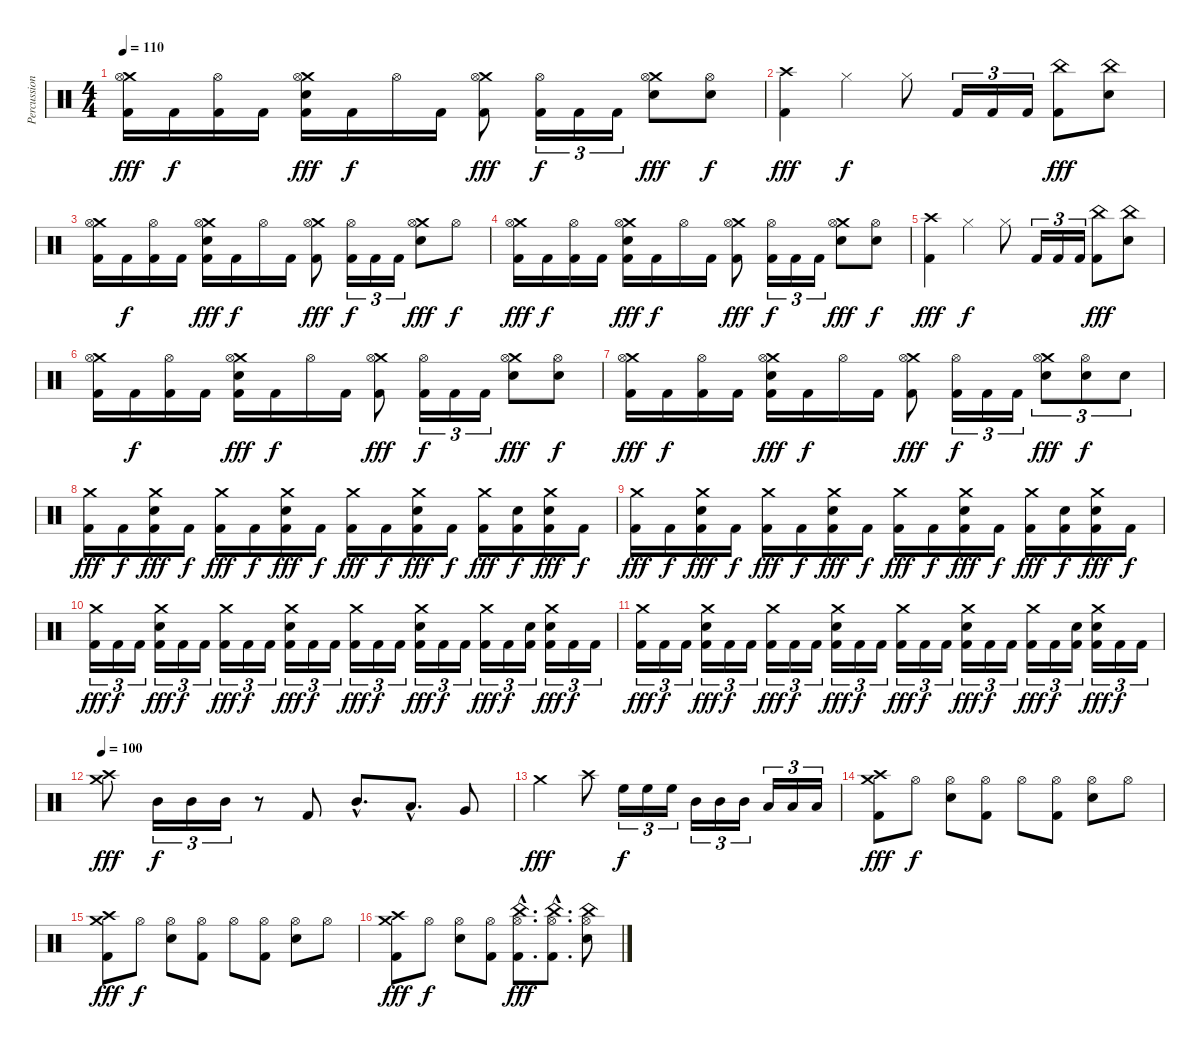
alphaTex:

\track ("Percussion" "Percussion") {instrument percussion}
\staff {score}
\articulation defaults
\ts (4 4)
\tempo 110
\clef neutral
\ks c
("Crash medium (hit)" "Hi-Hat (open)" "Kick (hit) 2").16{dy fff} "Kick (hit) 2".16{dy f} ("Hi-Hat (open)" "Kick (hit) 2").16 "Kick (hit) 2".16 ("Crash medium (hit)" "Hi-Hat (open)" "Electric Snare (hit)" "Kick (hit) 2").16{dy fff} "Kick (hit) 2".16{dy f} "Hi-Hat (open)".16 "Kick (hit) 2".16 ("Crash medium (hit)" "Hi-Hat (open)" "Kick (hit) 2").8{dy fff} ("Hi-Hat (open)" "Kick (hit) 2").16{tu (3 2) dy f} "Kick (hit) 2".16{tu (3 2)} "Kick (hit) 2".16{tu (3 2)} ("Crash medium (hit)" "Hi-Hat (open)" "Electric Snare (hit)").8{dy fff} ("Hi-Hat (open)" "Electric Snare (hit)").8{dy f} |
("Crash high (hit)" "Kick (hit) 2").4{dy fff} "Hi-Hat (closed)".4{dy f} "Hi-Hat (closed)".8 "Kick (hit) 2".16{tu (3 2)} "Kick (hit) 2".16{tu (3 2)} "Kick (hit) 2".16{tu (3 2)} ("China (hit)" "Kick (hit) 2").8{dy fff} ("China (hit)" "Electric Snare (hit)").8 |
("Crash medium (hit)" "Hi-Hat (open)" "Kick (hit) 2").16 "Kick (hit) 2".16{dy f} ("Hi-Hat (open)" "Kick (hit) 2").16 "Kick (hit) 2".16 ("Crash medium (hit)" "Hi-Hat (open)" "Electric Snare (hit)" "Kick (hit) 2").16{dy fff} "Kick (hit) 2".16{dy f} "Hi-Hat (open)".16 "Kick (hit) 2".16 ("Crash medium (hit)" "Hi-Hat (open)" "Kick (hit) 2").8{dy fff} ("Hi-Hat (open)" "Kick (hit) 2").16{tu (3 2) dy f} "Kick (hit) 2".16{tu (3 2)} "Kick (hit) 2".16{tu (3 2)} ("Crash medium (hit)" "Hi-Hat (open)" "Electric Snare (hit)").8{dy fff} "Hi-Hat (open)".8{dy f} |
("Crash medium (hit)" "Hi-Hat (open)" "Kick (hit) 2").16{dy fff} "Kick (hit) 2".16{dy f} ("Hi-Hat (open)" "Kick (hit) 2").16 "Kick (hit) 2".16 ("Crash medium (hit)" "Hi-Hat (open)" "Electric Snare (hit)" "Kick (hit) 2").16{dy fff} "Kick (hit) 2".16{dy f} "Hi-Hat (open)".16 "Kick (hit) 2".16 ("Crash medium (hit)" "Hi-Hat (open)" "Kick (hit) 2").8{dy fff} ("Hi-Hat (open)" "Kick (hit) 2").16{tu (3 2) dy f} "Kick (hit) 2".16{tu (3 2)} "Kick (hit) 2".16{tu (3 2)} ("Crash medium (hit)" "Hi-Hat (open)" "Electric Snare (hit)").8{dy fff} ("Hi-Hat (open)" "Electric Snare (hit)").8{dy f} |
("Crash high (hit)" "Kick (hit) 2").4{dy fff} "Hi-Hat (closed)".4{dy f} "Hi-Hat (closed)".8 "Kick (hit) 2".16{tu (3 2)} "Kick (hit) 2".16{tu (3 2)} "Kick (hit) 2".16{tu (3 2)} ("China (hit)" "Kick (hit) 2").8{dy fff} ("China (hit)" "Electric Snare (hit)").8 |
("Crash medium (hit)" "Hi-Hat (open)" "Kick (hit) 2").16 "Kick (hit) 2".16{dy f} ("Hi-Hat (open)" "Kick (hit) 2").16 "Kick (hit) 2".16 ("Crash medium (hit)" "Hi-Hat (open)" "Electric Snare (hit)" "Kick (hit) 2").16{dy fff} "Kick (hit) 2".16{dy f} "Hi-Hat (open)".16 "Kick (hit) 2".16 ("Crash medium (hit)" "Hi-Hat (open)" "Kick (hit) 2").8{dy fff} ("Hi-Hat (open)" "Kick (hit) 2").16{tu (3 2) dy f} "Kick (hit) 2".16{tu (3 2)} "Kick (hit) 2".16{tu (3 2)} ("Crash medium (hit)" "Hi-Hat (open)" "Electric Snare (hit)").8{dy fff} ("Hi-Hat (open)" "Electric Snare (hit)").8{dy f} |
("Crash medium (hit)" "Hi-Hat (open)" "Kick (hit) 2").16{dy fff} "Kick (hit) 2".16{dy f} ("Hi-Hat (open)" "Kick (hit) 2").16 "Kick (hit) 2".16 ("Crash medium (hit)" "Hi-Hat (open)" "Electric Snare (hit)" "Kick (hit) 2").16{dy fff} "Kick (hit) 2".16{dy f} "Hi-Hat (open)".16 "Kick (hit) 2".16 ("Crash medium (hit)" "Hi-Hat (open)" "Kick (hit) 2").8{dy fff} ("Hi-Hat (open)" "Kick (hit) 2").16{tu (3 2) dy f} "Kick (hit) 2".16{tu (3 2)} "Kick (hit) 2".16{tu (3 2)} ("Crash medium (hit)" "Hi-Hat (open)" "Electric Snare (hit)").8{tu (3 2) dy fff} ("Hi-Hat (open)" "Electric Snare (hit)").8{tu (3 2) dy f} "Electric Snare (hit)".8{tu (3 2)} |
("Crash medium (hit)" "Kick (hit) 2").16{dy fff} "Kick (hit) 2".16{dy f} ("Crash medium (hit)" "Electric Snare (hit)" "Kick (hit) 2").16{dy fff} "Kick (hit) 2".16{dy f} ("Crash medium (hit)" "Kick (hit) 2").16{dy fff} "Kick (hit) 2".16{dy f} ("Crash medium (hit)" "Electric Snare (hit)" "Kick (hit) 2").16{dy fff} "Kick (hit) 2".16{dy f} ("Crash medium (hit)" "Kick (hit) 2").16{dy fff} "Kick (hit) 2".16{dy f} ("Crash medium (hit)" "Electric Snare (hit)" "Kick (hit) 2").16{dy fff} "Kick (hit) 2".16{dy f} ("Crash medium (hit)" "Kick (hit) 2").16{dy fff} ("Electric Snare (hit)" "Kick (hit) 2").16{dy f} ("Crash medium (hit)" "Electric Snare (hit)" "Kick (hit) 2").16{dy fff} "Kick (hit) 2".16{dy f} |
("Crash medium (hit)" "Kick (hit) 2").16{dy fff} "Kick (hit) 2".16{dy f} ("Crash medium (hit)" "Electric Snare (hit)" "Kick (hit) 2").16{dy fff} "Kick (hit) 2".16{dy f} ("Crash medium (hit)" "Kick (hit) 2").16{dy fff} "Kick (hit) 2".16{dy f} ("Crash medium (hit)" "Electric Snare (hit)" "Kick (hit) 2").16{dy fff} "Kick (hit) 2".16{dy f} ("Crash medium (hit)" "Kick (hit) 2").16{dy fff} "Kick (hit) 2".16{dy f} ("Crash medium (hit)" "Electric Snare (hit)" "Kick (hit) 2").16{dy fff} "Kick (hit) 2".16{dy f} ("Crash medium (hit)" "Kick (hit) 2").16{dy fff} ("Electric Snare (hit)" "Kick (hit) 2").16{dy f} ("Crash medium (hit)" "Electric Snare (hit)" "Kick (hit) 2").16{dy fff} "Kick (hit) 2".16{dy f} |
("Crash medium (hit)" "Kick (hit) 2").16{tu (3 2) dy fff} "Kick (hit) 2".16{tu (3 2) dy f} "Kick (hit) 2".16{tu (3 2)} ("Crash medium (hit)" "Electric Snare (hit)" "Kick (hit) 2").16{tu (3 2) dy fff} "Kick (hit) 2".16{tu (3 2) dy f} "Kick (hit) 2".16{tu (3 2)} ("Crash medium (hit)" "Kick (hit) 2").16{tu (3 2) dy fff} "Kick (hit) 2".16{tu (3 2) dy f} "Kick (hit) 2".16{tu (3 2)} ("Crash medium (hit)" "Electric Snare (hit)" "Kick (hit) 2").16{tu (3 2) dy fff} "Kick (hit) 2".16{tu (3 2) dy f} "Kick (hit) 2".16{tu (3 2)} ("Crash medium (hit)" "Kick (hit) 2").16{tu (3 2) dy fff} "Kick (hit) 2".16{tu (3 2) dy f} "Kick (hit) 2".16{tu (3 2)} ("Crash medium (hit)" "Electric Snare (hit)" "Kick (hit) 2").16{tu (3 2) dy fff} "Kick (hit) 2".16{tu (3 2) dy f} "Kick (hit) 2".16{tu (3 2)} ("Crash medium (hit)" "Kick (hit) 2").16{tu (3 2) dy fff} "Kick (hit) 2".16{tu (3 2) dy f} ("Electric Snare (hit)" "Kick (hit) 2").16{tu (3 2)} ("Crash medium (hit)" "Electric Snare (hit)" "Kick (hit) 2").16{tu (3 2) dy fff} "Kick (hit) 2".16{tu (3 2) dy f} "Kick (hit) 2".16{tu (3 2)} |
("Crash medium (hit)" "Kick (hit) 2").16{tu (3 2) dy fff} "Kick (hit) 2".16{tu (3 2) dy f} "Kick (hit) 2".16{tu (3 2)} ("Crash medium (hit)" "Electric Snare (hit)" "Kick (hit) 2").16{tu (3 2) dy fff} "Kick (hit) 2".16{tu (3 2) dy f} "Kick (hit) 2".16{tu (3 2)} ("Crash medium (hit)" "Kick (hit) 2").16{tu (3 2) dy fff} "Kick (hit) 2".16{tu (3 2) dy f} "Kick (hit) 2".16{tu (3 2)} ("Crash medium (hit)" "Electric Snare (hit)" "Kick (hit) 2").16{tu (3 2) dy fff} "Kick (hit) 2".16{tu (3 2) dy f} "Kick (hit) 2".16{tu (3 2)} ("Crash medium (hit)" "Kick (hit) 2").16{tu (3 2) dy fff} "Kick (hit) 2".16{tu (3 2) dy f} "Kick (hit) 2".16{tu (3 2)} ("Crash medium (hit)" "Electric Snare (hit)" "Kick (hit) 2").16{tu (3 2) dy fff} "Kick (hit) 2".16{tu (3 2) dy f} "Kick (hit) 2".16{tu (3 2)} ("Crash medium (hit)" "Kick (hit) 2").16{tu (3 2) dy fff} "Kick (hit) 2".16{tu (3 2) dy f} ("Electric Snare (hit)" "Kick (hit) 2").16{tu (3 2)} ("Crash medium (hit)" "Electric Snare (hit)" "Kick (hit) 2").16{tu (3 2) dy fff} "Kick (hit) 2".16{tu (3 2) dy f} "Kick (hit) 2".16{tu (3 2)} |
\tempo 100
("Crash medium (hit)" "Crash high (hit)").8{dy fff} "Mid Tom (hit)".16{tu (3 2) dy f} "Mid Tom (hit)".16{tu (3 2)} "Mid Tom (hit)".16{tu (3 2)} r.8 "Kick (hit) 2".8 "Mid Tom (hit)"{hac}.8{d} "Low Tom (hit)"{hac}.8{d} "Very Low Tom (hit)".8 |
"Crash medium (hit)".2{dy fff} "Crash high (hit)".8 "High Floor Tom (hit)".16{tu (3 2) dy f} "High Floor Tom (hit)".16{tu (3 2)} "High Floor Tom (hit)".16{tu (3 2)} "Mid Tom (hit)".16{tu (3 2)} "Mid Tom (hit)".16{tu (3 2)} "Mid Tom (hit)".16{tu (3 2)} "Low Tom (hit)".16{tu (3 2)} "Low Tom (hit)".16{tu (3 2)} "Low Tom (hit)".16{tu (3 2)} |
("Crash medium (hit)" "Crash high (hit)" "Kick (hit) 2").8{dy fff} "Hi-Hat (open)".8{dy f} ("Hi-Hat (open)" "Electric Snare (hit)").8 ("Hi-Hat (open)" "Kick (hit) 2").8 "Hi-Hat (open)".8 ("Hi-Hat (open)" "Kick (hit) 2").8 ("Hi-Hat (open)" "Electric Snare (hit)").8 "Hi-Hat (open)".8 |
("Crash medium (hit)" "Crash high (hit)" "Kick (hit) 2").8{dy fff} "Hi-Hat (open)".8{dy f} ("Hi-Hat (open)" "Electric Snare (hit)").8 ("Hi-Hat (open)" "Kick (hit) 2").8 "Hi-Hat (open)".8 ("Hi-Hat (open)" "Kick (hit) 2").8 ("Hi-Hat (open)" "Electric Snare (hit)").8 "Hi-Hat (open)".8 |
("Crash medium (hit)" "Crash high (hit)" "Kick (hit) 2").8{dy fff} "Hi-Hat (open)".8{dy f} ("Hi-Hat (open)" "Electric Snare (hit)").8 ("Hi-Hat (open)" "Kick (hit) 2").8 ("China (hit)"{hac} "Hi-Hat (open)"{hac} "Kick (hit) 2"{hac}).8{d dy fff} ("China (hit)"{hac} "Hi-Hat (open)"{hac} "Kick (hit) 2"{hac}).8{d} ("China (hit)" "Hi-Hat (open)" "Electric Snare (hit)").8
